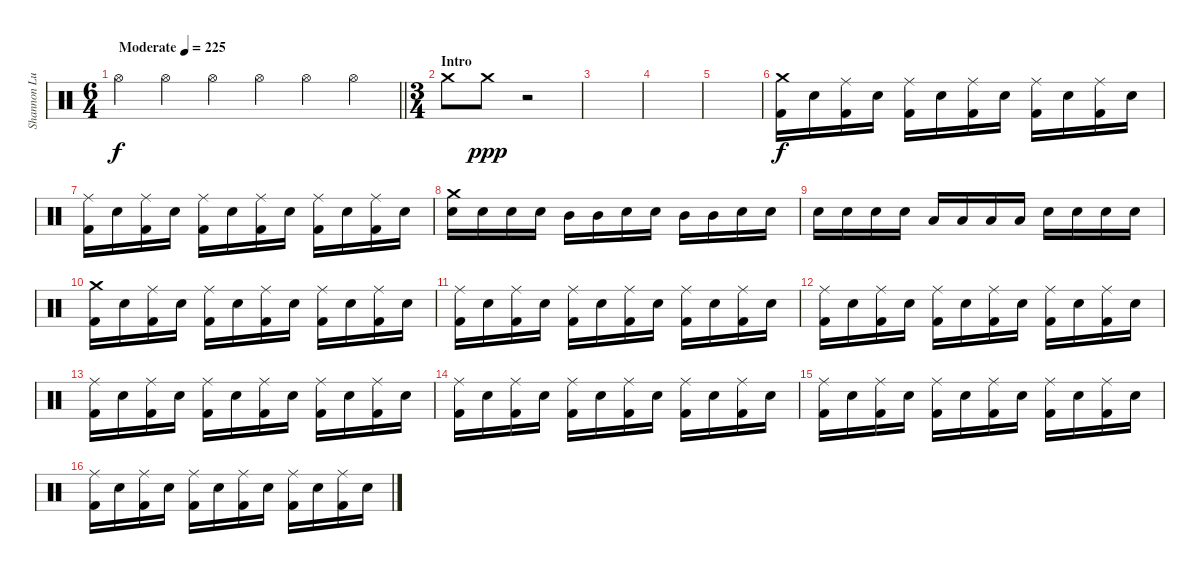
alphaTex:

\track ("Shannon Lucas" "Shannon Lu") {instrument percussion}
\staff {score}
\articulation defaults
\ts (6 4)
\tempo (225 "Moderate")
\clef neutral
\barLineRight lightlight
\ks c "Hi-Hat (open)".4{dy f} "Hi-Hat (open)".4 "Hi-Hat (open)".4 "Hi-Hat (open)".4 "Hi-Hat (open)".4 "Hi-Hat (open)".4
|
\ts (3 4)
\section ("" "Intro")
"Crash medium (hit)".8 "Crash medium (hit)".8{dy ppp} r.2 |
|
|
|
("Crash medium (hit)" "Kick (hit) 2").16{dy f} "Electric Snare (hit)".16 ("Ride (middle)" "Kick (hit) 2").16 "Electric Snare (hit)".16 ("Ride (middle)" "Kick (hit) 2").16 "Electric Snare (hit)".16 ("Ride (middle)" "Kick (hit) 2").16 "Electric Snare (hit)".16 ("Ride (middle)" "Kick (hit) 2").16 "Electric Snare (hit)".16 ("Ride (middle)" "Kick (hit) 2").16 "Electric Snare (hit)".16 |
("Ride (middle)" "Kick (hit) 2").16 "Electric Snare (hit)".16 ("Ride (middle)" "Kick (hit) 2").16 "Electric Snare (hit)".16 ("Ride (middle)" "Kick (hit) 2").16 "Electric Snare (hit)".16 ("Ride (middle)" "Kick (hit) 2").16 "Electric Snare (hit)".16 ("Ride (middle)" "Kick (hit) 2").16 "Electric Snare (hit)".16 ("Ride (middle)" "Kick (hit) 2").16 "Electric Snare (hit)".16 |
("Crash medium (hit)" "Electric Snare (hit)").16 "Electric Snare (hit)".16 "Electric Snare (hit)".16 "Electric Snare (hit)".16 "Mid Tom (hit)".16 "Mid Tom (hit)".16 "Electric Snare (hit)".16 "Electric Snare (hit)".16 "Mid Tom (hit)".16 "Mid Tom (hit)".16 "Electric Snare (hit)".16 "Electric Snare (hit)".16 |
"Electric Snare (hit)".16 "Electric Snare (hit)".16 "Electric Snare (hit)".16 "Electric Snare (hit)".16 "Low Tom (hit)".16 "Low Tom (hit)".16 "Low Tom (hit)".16 "Low Tom (hit)".16 "Electric Snare (hit)".16 "Electric Snare (hit)".16 "Electric Snare (hit)".16 "Electric Snare (hit)".16 |
("Crash medium (hit)" "Kick (hit) 2").16 "Electric Snare (hit)".16 ("Ride (middle)" "Kick (hit) 2").16 "Electric Snare (hit)".16 ("Ride (middle)" "Kick (hit) 2").16 "Electric Snare (hit)".16 ("Ride (middle)" "Kick (hit) 2").16 "Electric Snare (hit)".16 ("Ride (middle)" "Kick (hit) 2").16 "Electric Snare (hit)".16 ("Ride (middle)" "Kick (hit) 2").16 "Electric Snare (hit)".16 |
("Ride (middle)" "Kick (hit) 2").16 "Electric Snare (hit)".16 ("Ride (middle)" "Kick (hit) 2").16 "Electric Snare (hit)".16 ("Ride (middle)" "Kick (hit) 2").16 "Electric Snare (hit)".16 ("Ride (middle)" "Kick (hit) 2").16 "Electric Snare (hit)".16 ("Ride (middle)" "Kick (hit) 2").16 "Electric Snare (hit)".16 ("Ride (middle)" "Kick (hit) 2").16 "Electric Snare (hit)".16 |
("Ride (middle)" "Kick (hit) 2").16 "Electric Snare (hit)".16 ("Ride (middle)" "Kick (hit) 2").16 "Electric Snare (hit)".16 ("Ride (middle)" "Kick (hit) 2").16 "Electric Snare (hit)".16 ("Ride (middle)" "Kick (hit) 2").16 "Electric Snare (hit)".16 ("Ride (middle)" "Kick (hit) 2").16 "Electric Snare (hit)".16 ("Ride (middle)" "Kick (hit) 2").16 "Electric Snare (hit)".16 |
("Ride (middle)" "Kick (hit) 2").16 "Electric Snare (hit)".16 ("Ride (middle)" "Kick (hit) 2").16 "Electric Snare (hit)".16 ("Ride (middle)" "Kick (hit) 2").16 "Electric Snare (hit)".16 ("Ride (middle)" "Kick (hit) 2").16 "Electric Snare (hit)".16 ("Ride (middle)" "Kick (hit) 2").16 "Electric Snare (hit)".16 ("Ride (middle)" "Kick (hit) 2").16 "Electric Snare (hit)".16 |
("Ride (middle)" "Kick (hit) 2").16 "Electric Snare (hit)".16 ("Ride (middle)" "Kick (hit) 2").16 "Electric Snare (hit)".16 ("Ride (middle)" "Kick (hit) 2").16 "Electric Snare (hit)".16 ("Ride (middle)" "Kick (hit) 2").16 "Electric Snare (hit)".16 ("Ride (middle)" "Kick (hit) 2").16 "Electric Snare (hit)".16 ("Ride (middle)" "Kick (hit) 2").16 "Electric Snare (hit)".16 |
("Ride (middle)" "Kick (hit) 2").16 "Electric Snare (hit)".16 ("Ride (middle)" "Kick (hit) 2").16 "Electric Snare (hit)".16 ("Ride (middle)" "Kick (hit) 2").16 "Electric Snare (hit)".16 ("Ride (middle)" "Kick (hit) 2").16 "Electric Snare (hit)".16 ("Ride (middle)" "Kick (hit) 2").16 "Electric Snare (hit)".16 ("Ride (middle)" "Kick (hit) 2").16 "Electric Snare (hit)".16 |
("Ride (middle)" "Kick (hit) 2").16 "Electric Snare (hit)".16 ("Ride (middle)" "Kick (hit) 2").16 "Electric Snare (hit)".16 ("Ride (middle)" "Kick (hit) 2").16 "Electric Snare (hit)".16 ("Ride (middle)" "Kick (hit) 2").16 "Electric Snare (hit)".16 ("Ride (middle)" "Kick (hit) 2").16 "Electric Snare (hit)".16 ("Ride (middle)" "Kick (hit) 2").16 "Electric Snare (hit)".16
